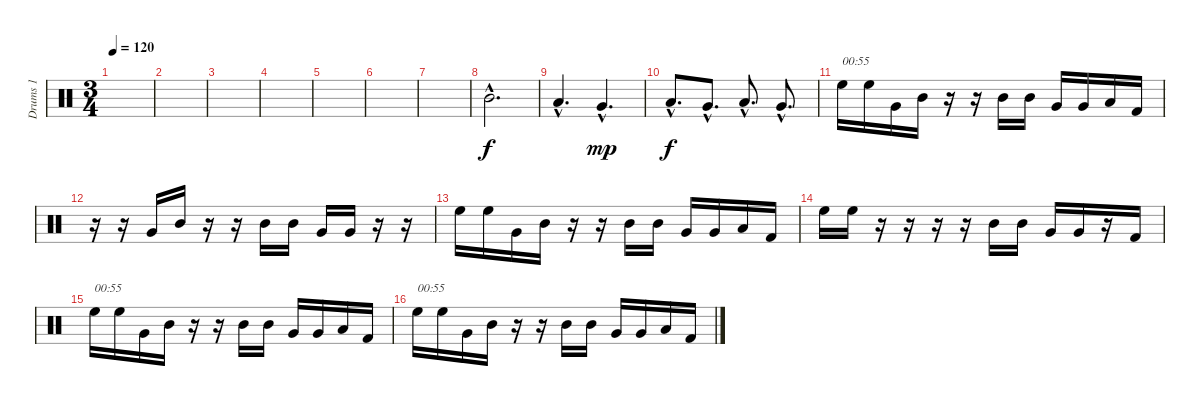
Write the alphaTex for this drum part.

\track ("Drums 1" "Drums 1") {instrument percussion}
\staff {score}
\articulation defaults
\ts (3 4)
\tempo 120
\clef neutral
\ks c
|
|
|
|
|
|
|
"Mid Tom (hit)"{hac}.2{d} |
"Low Tom (hit)"{hac}.4{d} "Very Low Tom (hit)"{hac}.4{d dy mp} |
"Low Tom (hit)"{hac}.8{d dy f balance 0} "Very Low Tom (hit)"{hac}.8{d balance 15} "Low Tom (hit)"{hac}.8{d balance 1} "Very Low Tom (hit)"{hac}.8{d balance 13} |
"High Floor Tom (hit)".16{txt "00:55" volume 8 balance 8} "High Floor Tom (hit)".16 "Very Low Tom (hit)".16 "Mid Tom (hit)".16 r.16 r.16 "Mid Tom (hit)".16 "Mid Tom (hit)".16 "Very Low Tom (hit)".16 "Very Low Tom (hit)".16 "Low Floor Tom (hit)".16 "Kick (hit) 2".16 |
r.16{volume 8 balance 8} r.16 "Very Low Tom (hit)".16 "Mid Tom (hit)".16 r.16 r.16 "Mid Tom (hit)".16 "Mid Tom (hit)".16 "Very Low Tom (hit)".16 "Very Low Tom (hit)".16 r.16 r.16 |
"High Floor Tom (hit)".16{volume 8 balance 8} "High Floor Tom (hit)".16 "Very Low Tom (hit)".16 "Mid Tom (hit)".16 r.16 r.16 "Mid Tom (hit)".16 "Mid Tom (hit)".16 "Very Low Tom (hit)".16 "Very Low Tom (hit)".16 "Low Floor Tom (hit)".16 "Kick (hit) 2".16 |
"High Floor Tom (hit)".16{volume 8 balance 8} "High Floor Tom (hit)".16 r.16 r.16 r.16 r.16 "Mid Tom (hit)".16 "Mid Tom (hit)".16 "Very Low Tom (hit)".16 "Very Low Tom (hit)".16 r.16 "Kick (hit) 2".16 |
"High Floor Tom (hit)".16{txt "00:55" volume 11 balance 8} "High Floor Tom (hit)".16 "Very Low Tom (hit)".16 "Mid Tom (hit)".16 r.16 r.16 "Mid Tom (hit)".16 "Mid Tom (hit)".16 "Very Low Tom (hit)".16 "Very Low Tom (hit)".16 "Low Floor Tom (hit)".16 "Kick (hit) 2".16 |
"High Floor Tom (hit)".16{txt "00:55"} "High Floor Tom (hit)".16 "Very Low Tom (hit)".16 "Mid Tom (hit)".16 r.16 r.16 "Mid Tom (hit)".16 "Mid Tom (hit)".16 "Very Low Tom (hit)".16 "Very Low Tom (hit)".16 "Low Floor Tom (hit)".16 "Kick (hit) 2".16
